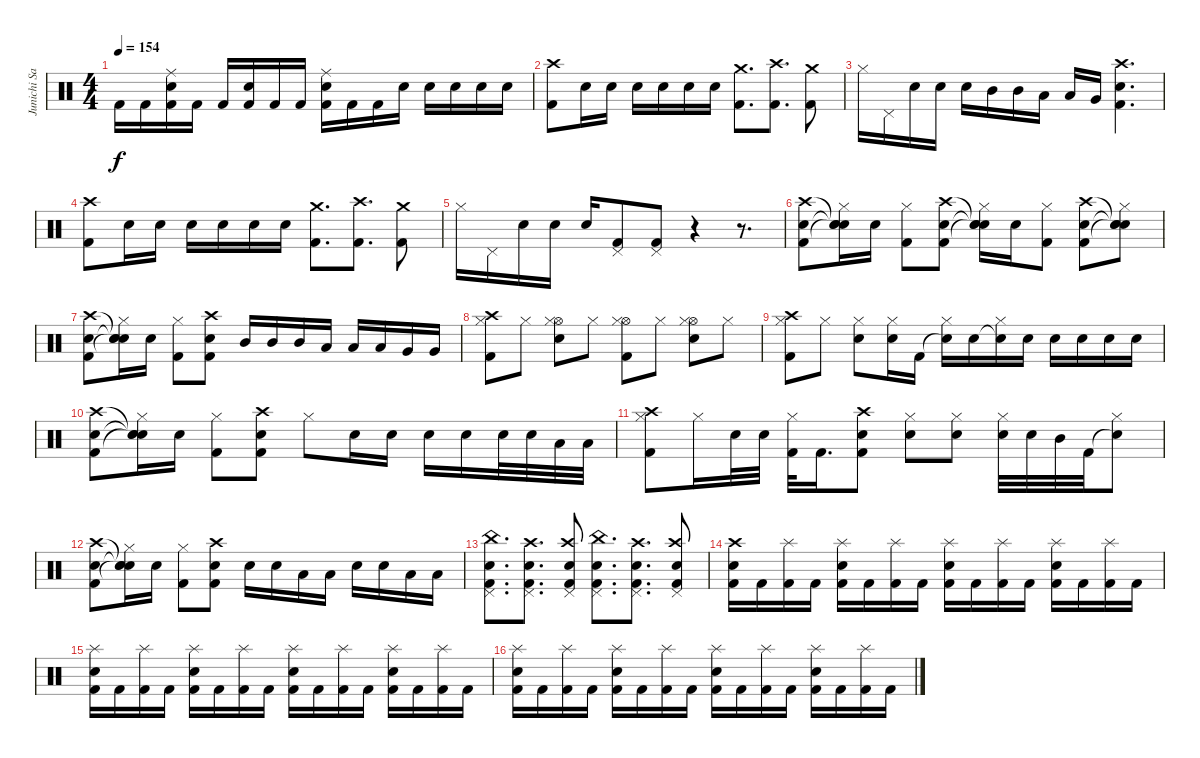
\track ("Junichi Sato" "Junichi Sa") {instrument percussion}
\staff {score}
\articulation defaults
\ts (4 4)
\tempo 154
\clef neutral
\ks c "Kick (hit) 2".16{dy f} "Kick (hit) 2".16
("Kick (hit) 2" "Electric Snare (hit)" "Ride (middle)").16 "Kick (hit) 2".16 "Kick (hit) 2".16 ("Kick (hit) 2" "Electric Snare (hit)").16 "Kick (hit) 2".16 "Kick (hit) 2".16 ("Kick (hit) 2" "Electric Snare (hit)" "Ride (middle)").16 "Kick (hit) 2".16 "Kick (hit) 2".16 "Electric Snare (hit)".16 "Electric Snare (hit)".16 "Electric Snare (hit)".16 "Electric Snare (hit)".16 "Electric Snare (hit)".16 |
("Crash high (hit)" "Kick (hit) 2").8 "Electric Snare (hit)".16 "Electric Snare (hit)".16 "Electric Snare (hit)".16 "Electric Snare (hit)".16 "Electric Snare (hit)".16 "Electric Snare (hit)".16 ("Kick (hit) 2" "Crash medium (hit)").8{d} ("Kick (hit) 2" "Crash high (hit)").8{d} ("Kick (hit) 2" "Crash medium (hit)").8 |
"Hi-Hat (closed)".16 "Pedal Hi-Hat (hit)".16 "Electric Snare (hit)".16 "Electric Snare (hit)".16 "Electric Snare (hit)".16 "Mid Tom (hit)".16 "Mid Tom (hit)".16 "Low Tom (hit)".16 "Low Tom (hit)".16 "Very Low Tom (hit)".16 ("Crash high (hit)" "Electric Snare (hit)" "Kick (hit) 2").4{d} |
("Crash high (hit)" "Kick (hit) 2").8 "Electric Snare (hit)".16 "Electric Snare (hit)".16 "Electric Snare (hit)".16 "Electric Snare (hit)".16 "Electric Snare (hit)".16 "Electric Snare (hit)".16 ("Kick (hit) 2" "Crash medium (hit)").8{d} ("Kick (hit) 2" "Crash high (hit)").8{d} ("Kick (hit) 2" "Crash medium (hit)").8 |
"Hi-Hat (closed)".16 "Pedal Hi-Hat (hit)".16 "Electric Snare (hit)".16 "Electric Snare (hit)".16 "Electric Snare (hit)".16 ("Kick (hit) 2" "Pedal Hi-Hat (hit)").8 ("Kick (hit) 2" "Pedal Hi-Hat (hit)").8 r.4 r.8{d} |
("Kick (hit) 2" "Crash high (hit)" "Electric Snare (hit)").8 ("Snare (hit)"{t} "Snare (hit)"{t} "Snare (hit)"{t} "Hi-Hat (closed)").16 "Electric Snare (hit)".16 ("Kick (hit) 2" "Hi-Hat (closed)").8 ("Kick (hit) 2" "Crash high (hit)" "Electric Snare (hit)").8 ("Snare (hit)"{t} "Snare (hit)"{t} "Snare (hit)"{t} "Hi-Hat (closed)").16 "Electric Snare (hit)".16 ("Kick (hit) 2" "Hi-Hat (closed)").8 ("Kick (hit) 2" "Electric Snare (hit)" "Crash high (hit)").8 ("Snare (hit)"{t} "Snare (hit)"{t} "Snare (hit)"{t} "Hi-Hat (closed)").8 |
("Kick (hit) 2" "Crash high (hit)" "Electric Snare (hit)").8 ("Snare (hit)"{t} "Snare (hit)"{t} "Snare (hit)"{t} "Hi-Hat (closed)").16 "Electric Snare (hit)".16 ("Kick (hit) 2" "Hi-Hat (closed)").8 ("Kick (hit) 2" "Crash high (hit)" "Electric Snare (hit)").8 "Mid Tom (hit)".16 "Mid Tom (hit)".16 "Mid Tom (hit)".16 "Low Tom (hit)".16 "Low Tom (hit)".16 "Low Tom (hit)".16 "Very Low Tom (hit)".16 "Very Low Tom (hit)".16 |
("Kick (hit) 2" "Crash high (hit)" "Hi-Hat (closed)").8 "Hi-Hat (closed)".8 ("Electric Snare (hit)" "Hi-Hat (open)" "Hi-Hat (closed)").8 "Hi-Hat (closed)".8 ("Kick (hit) 2" "Hi-Hat (open)" "Hi-Hat (closed)").8 "Hi-Hat (closed)".8 ("Electric Snare (hit)" "Hi-Hat (open)" "Hi-Hat (closed)").8 "Hi-Hat (closed)".8 |
("Kick (hit) 2" "Crash high (hit)" "Hi-Hat (closed)").8 "Hi-Hat (closed)".8 ("Electric Snare (hit)" "Hi-Hat (closed)").8 ("Electric Snare (hit)" "Hi-Hat (closed)").16 "Kick (hit) 2".16 ("Snare (hit)"{t} "Hi-Hat (closed)").16 "Electric Snare (hit)".16 ("Snare (hit)"{t} "Hi-Hat (closed)").16 "Electric Snare (hit)".16 "Electric Snare (hit)".16 "Electric Snare (hit)".16 "Electric Snare (hit)".16 "Electric Snare (hit)".16 |
("Kick (hit) 2" "Crash high (hit)" "Electric Snare (hit)").8 ("Snare (hit)"{t} "Snare (hit)"{t} "Snare (hit)"{t} "Hi-Hat (closed)").16 "Electric Snare (hit)".16 ("Kick (hit) 2" "Hi-Hat (closed)").8 ("Kick (hit) 2" "Crash high (hit)" "Electric Snare (hit)").8 "Hi-Hat (closed)".8 "Electric Snare (hit)".16 "Electric Snare (hit)".16 "Electric Snare (hit)".16 "Electric Snare (hit)".16 "Electric Snare (hit)".32 "Electric Snare (hit)".32 "Low Tom (hit)".32 "Low Tom (hit)".32 |
("Kick (hit) 2" "Crash high (hit)" "Hi-Hat (closed)").8 "Hi-Hat (closed)".16 "Electric Snare (hit)".32 "Electric Snare (hit)".32 ("Kick (hit) 2" "Hi-Hat (closed)").32 "Kick (hit) 2".16{d} ("Kick (hit) 2" "Electric Snare (hit)" "Crash high (hit)").8 ("Electric Snare (hit)" "Hi-Hat (closed)").8 ("Electric Snare (hit)" "Hi-Hat (closed)").8 ("Electric Snare (hit)" "Hi-Hat (closed)").32 "Electric Snare (hit)".32 "Mid Tom (hit)".32 "Kick (hit) 2".32 ("Snare (hit)"{t} "Hi-Hat (closed)").8 |
("Kick (hit) 2" "Crash high (hit)" "Electric Snare (hit)").8 ("Snare (hit)"{t} "Snare (hit)"{t} "Snare (hit)"{t} "Hi-Hat (closed)").16 "Electric Snare (hit)".16 ("Kick (hit) 2" "Hi-Hat (closed)").8 ("Kick (hit) 2" "Crash high (hit)" "Electric Snare (hit)").8 "Electric Snare (hit)".16 "Electric Snare (hit)".16 "Low Tom (hit)".16 "Low Tom (hit)".16 "Electric Snare (hit)".16 "Electric Snare (hit)".16 "Low Tom (hit)".16 "Low Tom (hit)".16 |
("Kick (hit) 2" "China (hit)" "Pedal Hi-Hat (hit)" "Electric Snare (hit)").8{d} ("Kick (hit) 2" "Crash high (hit)" "Pedal Hi-Hat (hit)" "Electric Snare (hit)").8{d} ("Kick (hit) 2" "Crash high (hit)" "Pedal Hi-Hat (hit)" "Electric Snare (hit)").8 ("Kick (hit) 2" "China (hit)" "Pedal Hi-Hat (hit)" "Electric Snare (hit)").8{d} ("Kick (hit) 2" "Crash high (hit)" "Pedal Hi-Hat (hit)" "Electric Snare (hit)").8{d} ("Kick (hit) 2" "Crash high (hit)" "Pedal Hi-Hat (hit)" "Electric Snare (hit)").8 |
("Kick (hit) 2" "Crash high (hit)" "Electric Snare (hit)").16 "Kick (hit) 2".16 ("Kick (hit) 2" "Splash (hit)").16 "Kick (hit) 2".16 ("Kick (hit) 2" "Electric Snare (hit)" "Splash (hit)").16 "Kick (hit) 2".16 ("Kick (hit) 2" "Splash (hit)").16 "Kick (hit) 2".16 ("Kick (hit) 2" "Electric Snare (hit)" "Splash (hit)").16 "Kick (hit) 2".16 ("Kick (hit) 2" "Splash (hit)").16 "Kick (hit) 2".16 ("Kick (hit) 2" "Electric Snare (hit)" "Splash (hit)").16 "Kick (hit) 2".16 ("Kick (hit) 2" "Splash (hit)").16 "Kick (hit) 2".16 |
("Kick (hit) 2" "Electric Snare (hit)" "Splash (hit)").16 "Kick (hit) 2".16 ("Kick (hit) 2" "Splash (hit)").16 "Kick (hit) 2".16 ("Kick (hit) 2" "Electric Snare (hit)" "Splash (hit)").16 "Kick (hit) 2".16 ("Kick (hit) 2" "Splash (hit)").16 "Kick (hit) 2".16 ("Kick (hit) 2" "Electric Snare (hit)" "Splash (hit)").16 "Kick (hit) 2".16 ("Kick (hit) 2" "Splash (hit)").16 "Kick (hit) 2".16 ("Kick (hit) 2" "Electric Snare (hit)" "Splash (hit)").16 "Kick (hit) 2".16 ("Kick (hit) 2" "Splash (hit)").16 "Kick (hit) 2".16 |
("Kick (hit) 2" "Electric Snare (hit)" "Splash (hit)").16 "Kick (hit) 2".16 ("Kick (hit) 2" "Splash (hit)").16 "Kick (hit) 2".16 ("Kick (hit) 2" "Electric Snare (hit)" "Splash (hit)").16 "Kick (hit) 2".16 ("Kick (hit) 2" "Splash (hit)").16 "Kick (hit) 2".16 ("Kick (hit) 2" "Electric Snare (hit)" "Splash (hit)").16 "Kick (hit) 2".16 ("Kick (hit) 2" "Splash (hit)").16 "Kick (hit) 2".16 ("Kick (hit) 2" "Electric Snare (hit)" "Splash (hit)").16 "Kick (hit) 2".16 ("Kick (hit) 2" "Splash (hit)").16 "Kick (hit) 2".16
